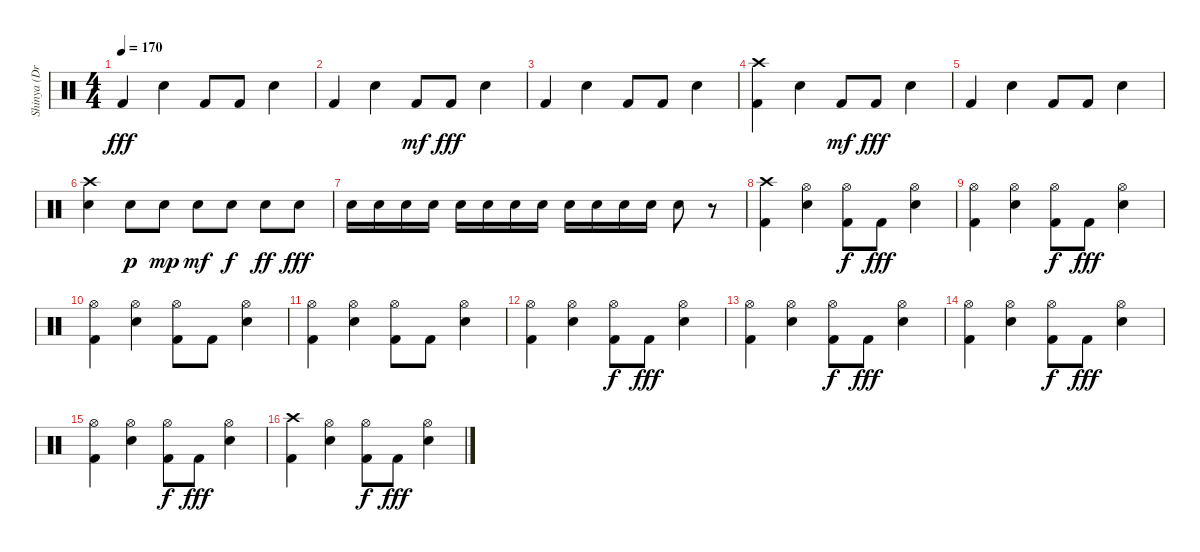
\track ("Shinya (Drums)" "Shinya (Dr") {instrument percussion}
\staff {score}
\articulation defaults
\ts (4 4)
\tempo 170
\clef neutral
\ks c "Kick (hit) 2".4{dy fff} "Electric Snare (hit)".4 "Kick (hit) 2".8 "Kick (hit) 2".8 "Electric Snare (hit)".4
|
"Kick (hit) 2".4 "Electric Snare (hit)".4 "Kick (hit) 2".8{dy mf} "Kick (hit) 2".8{dy fff} "Electric Snare (hit)".4 |
"Kick (hit) 2".4 "Electric Snare (hit)".4 "Kick (hit) 2".8 "Kick (hit) 2".8 "Electric Snare (hit)".4 |
("Crash high (hit)" "Kick (hit) 2").4 "Electric Snare (hit)".4 "Kick (hit) 2".8{dy mf} "Kick (hit) 2".8{dy fff} "Electric Snare (hit)".4 |
"Kick (hit) 2".4 "Electric Snare (hit)".4 "Kick (hit) 2".8 "Kick (hit) 2".8 "Electric Snare (hit)".4 |
("Crash high (hit)" "Electric Snare (hit)").4 "Electric Snare (hit)".8{dy p} "Electric Snare (hit)".8{dy mp} "Electric Snare (hit)".8{dy mf} "Electric Snare (hit)".8{dy f} "Electric Snare (hit)".8{dy ff} "Electric Snare (hit)".8{dy fff} |
"Electric Snare (hit)".16 "Electric Snare (hit)".16 "Electric Snare (hit)".16 "Electric Snare (hit)".16 "Electric Snare (hit)".16 "Electric Snare (hit)".16 "Electric Snare (hit)".16 "Electric Snare (hit)".16 "Electric Snare (hit)".16 "Electric Snare (hit)".16 "Electric Snare (hit)".16 "Electric Snare (hit)".16 "Electric Snare (hit)".8 r.8 |
("Crash high (hit)" "Kick (hit) 2").4 ("Hi-Hat (open)" "Electric Snare (hit)").4 ("Hi-Hat (open)" "Kick (hit) 2").8{dy f} "Kick (hit) 2".8{dy fff} ("Hi-Hat (open)" "Electric Snare (hit)").4 |
("Hi-Hat (open)" "Kick (hit) 2").4 ("Hi-Hat (open)" "Electric Snare (hit)").4 ("Hi-Hat (open)" "Kick (hit) 2").8{dy f} "Kick (hit) 2".8{dy fff} ("Hi-Hat (open)" "Electric Snare (hit)").4 |
("Hi-Hat (open)" "Kick (hit) 2").4 ("Hi-Hat (open)" "Electric Snare (hit)").4 ("Hi-Hat (open)" "Kick (hit) 2").8 "Kick (hit) 2".8 ("Hi-Hat (open)" "Electric Snare (hit)").4 |
("Hi-Hat (open)" "Kick (hit) 2").4 ("Hi-Hat (open)" "Electric Snare (hit)").4 ("Hi-Hat (open)" "Kick (hit) 2").8 "Kick (hit) 2".8 ("Hi-Hat (open)" "Electric Snare (hit)").4 |
("Hi-Hat (open)" "Kick (hit) 2").4 ("Hi-Hat (open)" "Electric Snare (hit)").4 ("Hi-Hat (open)" "Kick (hit) 2").8{dy f} "Kick (hit) 2".8{dy fff} ("Hi-Hat (open)" "Electric Snare (hit)").4 |
("Hi-Hat (open)" "Kick (hit) 2").4 ("Hi-Hat (open)" "Electric Snare (hit)").4 ("Hi-Hat (open)" "Kick (hit) 2").8{dy f} "Kick (hit) 2".8{dy fff} ("Hi-Hat (open)" "Electric Snare (hit)").4 |
("Hi-Hat (open)" "Kick (hit) 2").4 ("Hi-Hat (open)" "Electric Snare (hit)").4 ("Hi-Hat (open)" "Kick (hit) 2").8{dy f} "Kick (hit) 2".8{dy fff} ("Hi-Hat (open)" "Electric Snare (hit)").4 |
("Hi-Hat (open)" "Kick (hit) 2").4 ("Hi-Hat (open)" "Electric Snare (hit)").4 ("Hi-Hat (open)" "Kick (hit) 2").8{dy f} "Kick (hit) 2".8{dy fff} ("Hi-Hat (open)" "Electric Snare (hit)").4 |
("Crash high (hit)" "Kick (hit) 2").4 ("Hi-Hat (open)" "Electric Snare (hit)").4 ("Hi-Hat (open)" "Kick (hit) 2").8{dy f} "Kick (hit) 2".8{dy fff} ("Hi-Hat (open)" "Electric Snare (hit)").4
